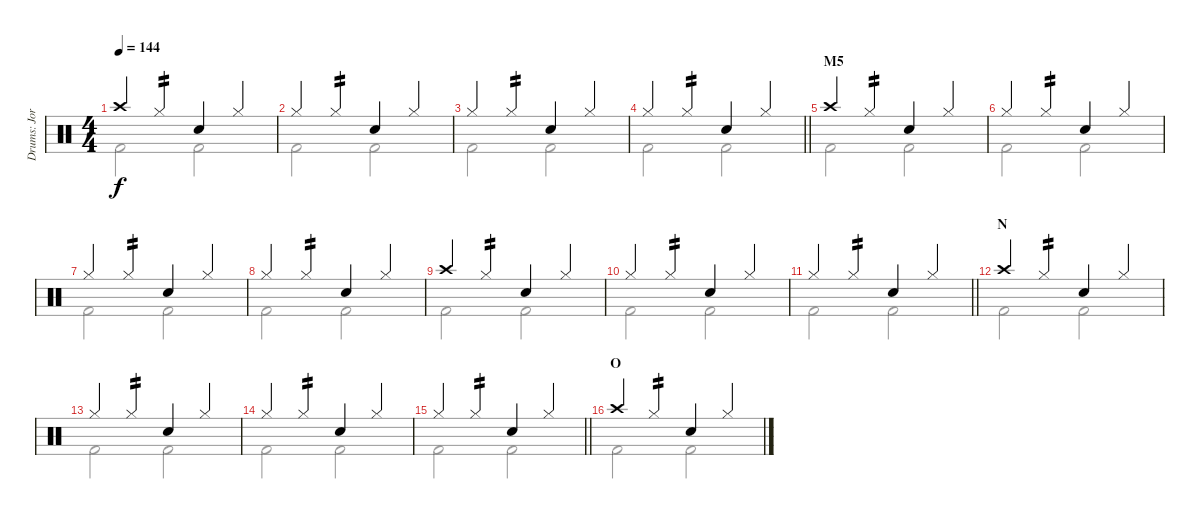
\track ("Drums: Jorg" "Drums: Jor") {instrument percussion}
\staff {score}
\articulation defaults
\voice
\ts (4 4)
\tempo 144
\clef neutral
\ks c "Crash high (hit)".4{dy f} "Hi-Hat (closed)".4{tp 2} "Snare (hit) 2".4 "Hi-Hat (closed)".4
|
"Hi-Hat (closed)".4 "Hi-Hat (closed)".4{tp 2} "Snare (hit) 2".4 "Hi-Hat (closed)".4 |
"Hi-Hat (closed)".4 "Hi-Hat (closed)".4{tp 2} "Snare (hit) 2".4 "Hi-Hat (closed)".4 |
\barLineRight lightlight "Hi-Hat (closed)".4 "Hi-Hat (closed)".4{tp 2} "Snare (hit) 2".4 "Hi-Hat (closed)".4
|
\section ("" "M5")
"Crash high (hit)".4 "Hi-Hat (closed)".4{tp 2} "Snare (hit) 2".4 "Hi-Hat (closed)".4 |
"Hi-Hat (closed)".4 "Hi-Hat (closed)".4{tp 2} "Snare (hit) 2".4 "Hi-Hat (closed)".4 |
"Hi-Hat (closed)".4 "Hi-Hat (closed)".4{tp 2} "Snare (hit) 2".4 "Hi-Hat (closed)".4 |
"Hi-Hat (closed)".4 "Hi-Hat (closed)".4{tp 2} "Snare (hit) 2".4 "Hi-Hat (closed)".4 |
"Crash high (hit)".4 "Hi-Hat (closed)".4{tp 2} "Snare (hit) 2".4 "Hi-Hat (closed)".4 |
"Hi-Hat (closed)".4 "Hi-Hat (closed)".4{tp 2} "Snare (hit) 2".4 "Hi-Hat (closed)".4 |
\barLineRight lightlight "Hi-Hat (closed)".4 "Hi-Hat (closed)".4{tp 2} "Snare (hit) 2".4 "Hi-Hat (closed)".4
|
\section ("" "N")
"Crash high (hit)".4 "Hi-Hat (closed)".4{tp 2} "Snare (hit) 2".4 "Hi-Hat (closed)".4 |
"Hi-Hat (closed)".4 "Hi-Hat (closed)".4{tp 2} "Snare (hit) 2".4 "Hi-Hat (closed)".4 |
"Hi-Hat (closed)".4 "Hi-Hat (closed)".4{tp 2} "Snare (hit) 2".4 "Hi-Hat (closed)".4 |
\barLineRight lightlight "Hi-Hat (closed)".4 "Hi-Hat (closed)".4{tp 2} "Snare (hit) 2".4 "Hi-Hat (closed)".4
|
\section ("" "O")
"Crash high (hit)".4 "Hi-Hat (closed)".4{tp 2} "Snare (hit) 2".4 "Hi-Hat (closed)".4
\voice
\clef neutral
\ottava regular
\simile none
\ks c "Kick (hit) 2".2{dy f} "Kick (hit) 2".2
|
"Kick (hit) 2".2 "Kick (hit) 2".2 |
"Kick (hit) 2".2 "Kick (hit) 2".2 |
\barLineRight lightlight "Kick (hit) 2".2 "Kick (hit) 2".2
|
"Kick (hit) 2".2 "Kick (hit) 2".2 |
"Kick (hit) 2".2 "Kick (hit) 2".2 |
"Kick (hit) 2".2 "Kick (hit) 2".2 |
"Kick (hit) 2".2 "Kick (hit) 2".2 |
"Kick (hit) 2".2 "Kick (hit) 2".2 |
"Kick (hit) 2".2 "Kick (hit) 2".2 |
\barLineRight lightlight "Kick (hit) 2".2 "Kick (hit) 2".2
|
"Kick (hit) 2".2 "Kick (hit) 2".2 |
"Kick (hit) 2".2 "Kick (hit) 2".2 |
"Kick (hit) 2".2 "Kick (hit) 2".2 |
\barLineRight lightlight "Kick (hit) 2".2 "Kick (hit) 2".2
|
"Kick (hit) 2".2 "Kick (hit) 2".2
